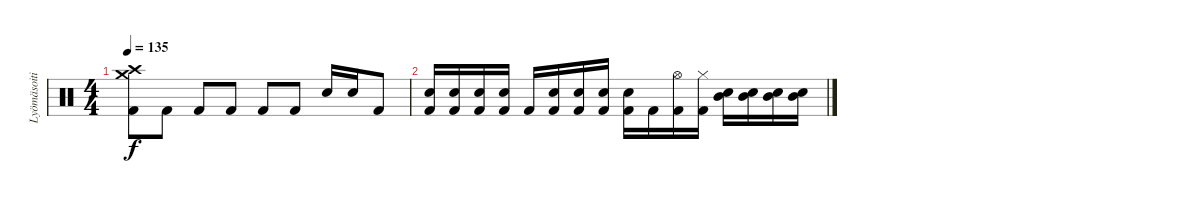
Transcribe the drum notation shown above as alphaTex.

\track ("Lyömäsoitin" "Lyömäsoiti") {instrument percussion}
\staff {score}
\articulation defaults
\ts (4 4)
\tempo 135
\clef neutral
\ks c
("Crash high (hit)" "Crash medium (hit)" "Kick (hit) 2").8{dy f} "Kick (hit) 2".8 "Kick (hit) 2".8 "Kick (hit) 2".8 "Kick (hit) 2".8 "Kick (hit) 2".8 "Electric Snare (hit)".16 "Electric Snare (hit)".16 "Kick (hit) 2".8 |
("Electric Snare (hit)" "Kick (hit) 2").16 ("Electric Snare (hit)" "Kick (hit) 2").16 ("Electric Snare (hit)" "Kick (hit) 2").16 ("Electric Snare (hit)" "Kick (hit) 2").16 "Kick (hit) 2".16 ("Electric Snare (hit)" "Kick (hit) 2").16 ("Electric Snare (hit)" "Kick (hit) 2").16 ("Electric Snare (hit)" "Kick (hit) 2").16 ("Electric Snare (hit)" "Kick (hit) 2").16 "Kick (hit) 2".16 ("Hi-Hat (open)" "Kick (hit) 2").16 ("Hi-Hat (closed)" "Kick (hit) 2").16 ("Mid Tom (hit)" "Electric Snare (hit)").16 ("Mid Tom (hit)" "Electric Snare (hit)").16 ("Mid Tom (hit)" "Electric Snare (hit)").16 ("Mid Tom (hit)" "Electric Snare (hit)").16
